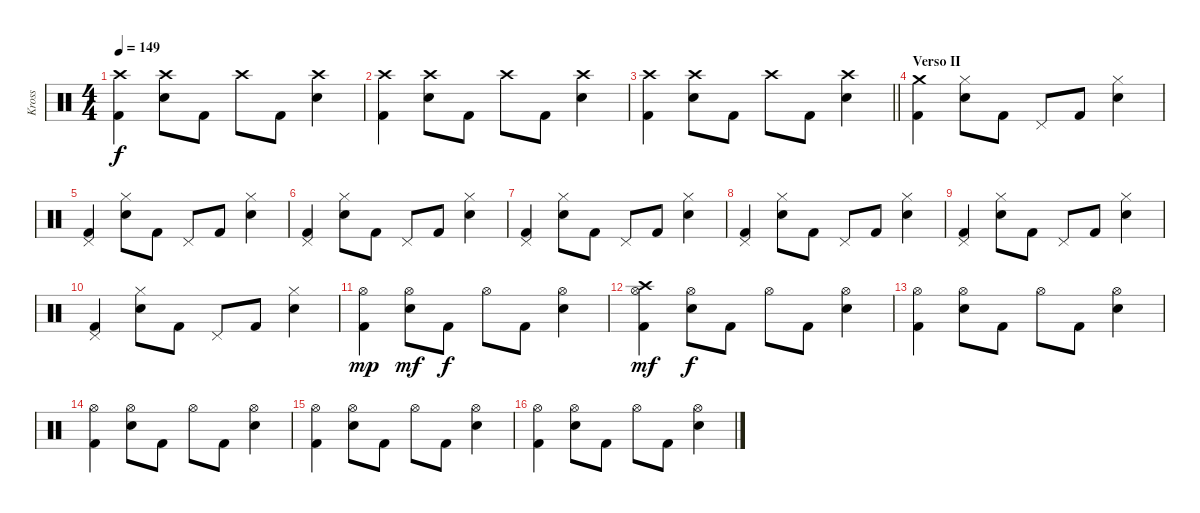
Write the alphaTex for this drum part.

\track ("Kross" "Kross") {instrument percussion}
\staff {score}
\articulation defaults
\ts (4 4)
\tempo 149
\clef neutral
\ks c
("Crash high (hit)" "Kick (hit) 2").4{dy f} ("Crash high (hit)" "Electric Snare (hit)").8 "Kick (hit) 2".8 "Crash high (hit)".8 "Kick (hit) 2".8 ("Crash high (hit)" "Electric Snare (hit)").4 |
("Crash high (hit)" "Kick (hit) 2").4 ("Crash high (hit)" "Electric Snare (hit)").8 "Kick (hit) 2".8 "Crash high (hit)".8 "Kick (hit) 2".8 ("Crash high (hit)" "Electric Snare (hit)").4 |
\barLineRight lightlight
("Crash high (hit)" "Kick (hit) 2").4 ("Crash high (hit)" "Electric Snare (hit)").8 "Kick (hit) 2".8 "Crash high (hit)".8 "Kick (hit) 2".8 ("Crash high (hit)" "Electric Snare (hit)").4 |
\section ("" "Verso II")
("Crash medium (hit)" "Kick (hit) 2").4 ("Hi-Hat (closed)" "Electric Snare (hit)").8 "Kick (hit) 2".8 "Pedal Hi-Hat (hit)".8 "Kick (hit) 2".8 ("Hi-Hat (closed)" "Electric Snare (hit)").4 |
("Pedal Hi-Hat (hit)" "Kick (hit) 2").4 ("Hi-Hat (closed)" "Electric Snare (hit)").8 "Kick (hit) 2".8 "Pedal Hi-Hat (hit)".8 "Kick (hit) 2".8 ("Hi-Hat (closed)" "Electric Snare (hit)").4 |
("Pedal Hi-Hat (hit)" "Kick (hit) 2").4 ("Hi-Hat (closed)" "Electric Snare (hit)").8 "Kick (hit) 2".8 "Pedal Hi-Hat (hit)".8 "Kick (hit) 2".8 ("Hi-Hat (closed)" "Electric Snare (hit)").4 |
("Pedal Hi-Hat (hit)" "Kick (hit) 2").4 ("Hi-Hat (closed)" "Electric Snare (hit)").8 "Kick (hit) 2".8 "Pedal Hi-Hat (hit)".8 "Kick (hit) 2".8 ("Hi-Hat (closed)" "Electric Snare (hit)").4 |
("Pedal Hi-Hat (hit)" "Kick (hit) 2").4 ("Hi-Hat (closed)" "Electric Snare (hit)").8 "Kick (hit) 2".8 "Pedal Hi-Hat (hit)".8 "Kick (hit) 2".8 ("Hi-Hat (closed)" "Electric Snare (hit)").4 |
("Pedal Hi-Hat (hit)" "Kick (hit) 2").4 ("Hi-Hat (closed)" "Electric Snare (hit)").8 "Kick (hit) 2".8 "Pedal Hi-Hat (hit)".8 "Kick (hit) 2".8 ("Hi-Hat (closed)" "Electric Snare (hit)").4 |
("Pedal Hi-Hat (hit)" "Kick (hit) 2").4 ("Hi-Hat (closed)" "Electric Snare (hit)").8 "Kick (hit) 2".8 "Pedal Hi-Hat (hit)".8 "Kick (hit) 2".8 ("Hi-Hat (closed)" "Electric Snare (hit)").4 |
("Hi-Hat (open)" "Kick (hit) 2").4{dy mp} ("Hi-Hat (open)" "Electric Snare (hit)").8{dy mf} "Kick (hit) 2".8{dy f} "Hi-Hat (open)".8 "Kick (hit) 2".8 ("Hi-Hat (open)" "Electric Snare (hit)").4 |
("Crash high (hit)" "Hi-Hat (open)" "Kick (hit) 2").4{dy mf} ("Hi-Hat (open)" "Electric Snare (hit)").8{dy f} "Kick (hit) 2".8 "Hi-Hat (open)".8 "Kick (hit) 2".8 ("Hi-Hat (open)" "Electric Snare (hit)").4 |
("Hi-Hat (open)" "Kick (hit) 2").4 ("Hi-Hat (open)" "Electric Snare (hit)").8 "Kick (hit) 2".8 "Hi-Hat (open)".8 "Kick (hit) 2".8 ("Hi-Hat (open)" "Electric Snare (hit)").4 |
("Hi-Hat (open)" "Kick (hit) 2").4 ("Hi-Hat (open)" "Electric Snare (hit)").8 "Kick (hit) 2".8 "Hi-Hat (open)".8 "Kick (hit) 2".8 ("Hi-Hat (open)" "Electric Snare (hit)").4 |
("Hi-Hat (open)" "Kick (hit) 2").4 ("Hi-Hat (open)" "Electric Snare (hit)").8 "Kick (hit) 2".8 "Hi-Hat (open)".8 "Kick (hit) 2".8 ("Hi-Hat (open)" "Electric Snare (hit)").4 |
("Hi-Hat (open)" "Kick (hit) 2").4 ("Hi-Hat (open)" "Electric Snare (hit)").8 "Kick (hit) 2".8 "Hi-Hat (open)".8 "Kick (hit) 2".8 ("Hi-Hat (open)" "Electric Snare (hit)").4
